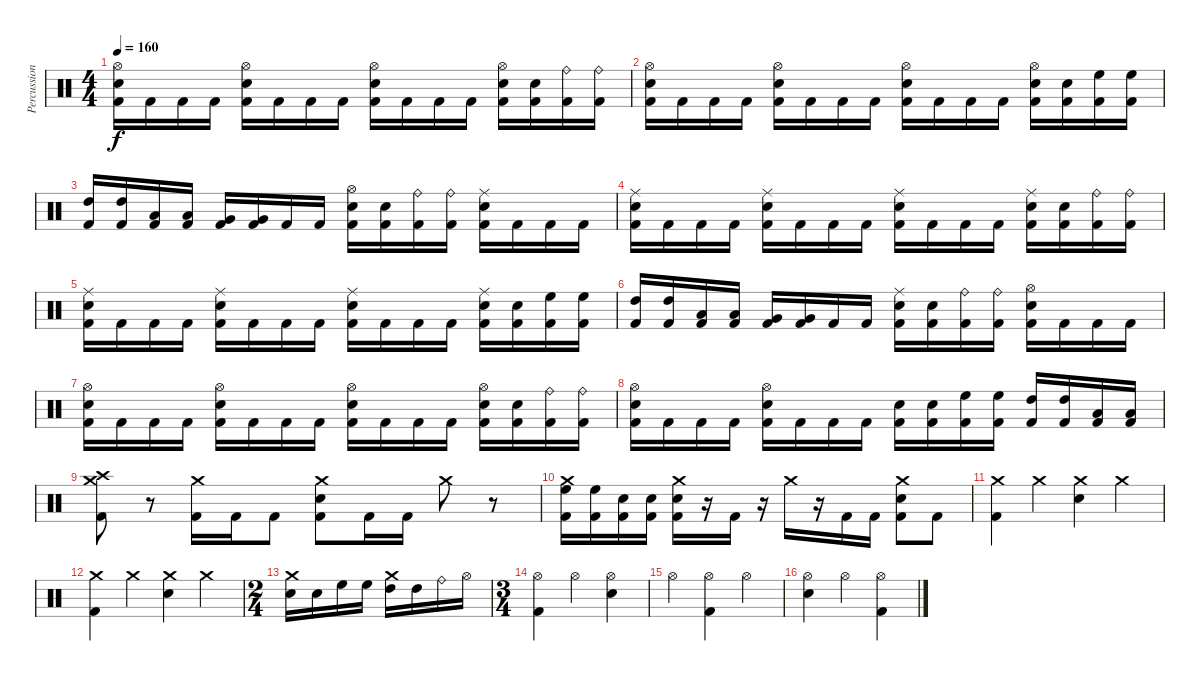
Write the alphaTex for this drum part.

\track ("Percussion" "Percussion") {instrument percussion}
\staff {score}
\articulation defaults
\ts (4 4)
\tempo 160
\clef neutral
\ks c
("Hi-Hat (open)" "Snare (hit) 2" "Kick (hit) 2").16{dy f} "Kick (hit) 2".16 "Kick (hit) 2".16 "Kick (hit) 2".16 ("Hi-Hat (open)" "Snare (hit) 2" "Kick (hit) 2").16 "Kick (hit) 2".16 "Kick (hit) 2".16 "Kick (hit) 2".16 ("Hi-Hat (open)" "Snare (hit) 2" "Kick (hit) 2").16 "Kick (hit) 2".16 "Kick (hit) 2".16 "Kick (hit) 2".16 ("Hi-Hat (open)" "Snare (hit) 2" "Kick (hit) 2").16 ("Snare (hit) 2" "Kick (hit) 2").16 ("Ride (bell)" "Kick (hit) 2").16 ("Ride (bell)" "Kick (hit) 2").16 |
("Hi-Hat (open)" "Snare (hit) 2" "Kick (hit) 2").16 "Kick (hit) 2".16 "Kick (hit) 2".16 "Kick (hit) 2".16 ("Hi-Hat (open)" "Snare (hit) 2" "Kick (hit) 2").16 "Kick (hit) 2".16 "Kick (hit) 2".16 "Kick (hit) 2".16 ("Hi-Hat (open)" "Snare (hit) 2" "Kick (hit) 2").16 "Kick (hit) 2".16 "Kick (hit) 2".16 "Kick (hit) 2".16 ("Hi-Hat (open)" "Snare (hit) 2" "Kick (hit) 2").16 ("Snare (hit) 2" "Kick (hit) 2").16 ("High Floor Tom (hit)" "Kick (hit) 2").16 ("High Floor Tom (hit)" "Kick (hit) 2").16 |
("High Tom (hit)" "Kick (hit) 2").16 ("High Tom (hit)" "Kick (hit) 2").16 ("Low Tom (hit)" "Kick (hit) 2").16 ("Low Tom (hit)" "Kick (hit) 2").16 ("Very Low Tom (hit)" "Kick (hit) 2").16 ("Very Low Tom (hit)" "Kick (hit) 2").16 "Kick (hit) 2".16 "Kick (hit) 2".16 ("Hi-Hat (open)" "Snare (hit) 2" "Kick (hit) 2").16 ("Snare (hit) 2" "Kick (hit) 2").16 ("Ride (bell)" "Kick (hit) 2").16 ("Ride (bell)" "Kick (hit) 2").16 ("Ride (middle)" "Snare (hit) 2" "Kick (hit) 2").16 "Kick (hit) 2".16 "Kick (hit) 2".16 "Kick (hit) 2".16 |
("Ride (middle)" "Snare (hit) 2" "Kick (hit) 2").16 "Kick (hit) 2".16 "Kick (hit) 2".16 "Kick (hit) 2".16 ("Ride (middle)" "Snare (hit) 2" "Kick (hit) 2").16 "Kick (hit) 2".16 "Kick (hit) 2".16 "Kick (hit) 2".16 ("Ride (middle)" "Snare (hit) 2" "Kick (hit) 2").16 "Kick (hit) 2".16 "Kick (hit) 2".16 "Kick (hit) 2".16 ("Ride (middle)" "Snare (hit) 2" "Kick (hit) 2").16 ("Snare (hit) 2" "Kick (hit) 2").16 ("Ride (bell)" "Kick (hit) 2").16 ("Ride (bell)" "Kick (hit) 2").16 |
("Ride (middle)" "Snare (hit) 2" "Kick (hit) 2").16 "Kick (hit) 2".16 "Kick (hit) 2".16 "Kick (hit) 2".16 ("Ride (middle)" "Snare (hit) 2" "Kick (hit) 2").16 "Kick (hit) 2".16 "Kick (hit) 2".16 "Kick (hit) 2".16 ("Ride (middle)" "Snare (hit) 2" "Kick (hit) 2").16 "Kick (hit) 2".16 "Kick (hit) 2".16 "Kick (hit) 2".16 ("Ride (middle)" "Snare (hit) 2" "Kick (hit) 2").16 ("Snare (hit) 2" "Kick (hit) 2").16 ("High Floor Tom (hit)" "Kick (hit) 2").16 ("High Floor Tom (hit)" "Kick (hit) 2").16 |
("High Tom (hit)" "Kick (hit) 2").16 ("High Tom (hit)" "Kick (hit) 2").16 ("Low Tom (hit)" "Kick (hit) 2").16 ("Low Tom (hit)" "Kick (hit) 2").16 ("Very Low Tom (hit)" "Kick (hit) 2").16 ("Very Low Tom (hit)" "Kick (hit) 2").16 "Kick (hit) 2".16 "Kick (hit) 2".16 ("Ride (middle)" "Snare (hit) 2" "Kick (hit) 2").16 ("Snare (hit) 2" "Kick (hit) 2").16 ("Ride (bell)" "Kick (hit) 2").16 ("Ride (bell)" "Kick (hit) 2").16 ("Hi-Hat (open)" "Snare (hit) 2" "Kick (hit) 2").16 "Kick (hit) 2".16 "Kick (hit) 2".16 "Kick (hit) 2".16 |
("Hi-Hat (open)" "Snare (hit) 2" "Kick (hit) 2").16 "Kick (hit) 2".16 "Kick (hit) 2".16 "Kick (hit) 2".16 ("Hi-Hat (open)" "Snare (hit) 2" "Kick (hit) 2").16 "Kick (hit) 2".16 "Kick (hit) 2".16 "Kick (hit) 2".16 ("Hi-Hat (open)" "Snare (hit) 2" "Kick (hit) 2").16 "Kick (hit) 2".16 "Kick (hit) 2".16 "Kick (hit) 2".16 ("Hi-Hat (open)" "Snare (hit) 2" "Kick (hit) 2").16 ("Snare (hit) 2" "Kick (hit) 2").16 ("Ride (bell)" "Kick (hit) 2").16 ("Ride (bell)" "Kick (hit) 2").16 |
("Hi-Hat (open)" "Snare (hit) 2" "Kick (hit) 2").16 "Kick (hit) 2".16 "Kick (hit) 2".16 "Kick (hit) 2".16 ("Hi-Hat (open)" "Snare (hit) 2" "Kick (hit) 2").16 "Kick (hit) 2".16 "Kick (hit) 2".16 "Kick (hit) 2".16 ("Snare (hit) 2" "Kick (hit) 2").16 ("Snare (hit) 2" "Kick (hit) 2").16 ("High Floor Tom (hit)" "Kick (hit) 2").16 ("High Floor Tom (hit)" "Kick (hit) 2").16 ("High Tom (hit)" "Kick (hit) 2").16 ("High Tom (hit)" "Kick (hit) 2").16 ("Low Tom (hit)" "Kick (hit) 2").16 ("Low Tom (hit)" "Kick (hit) 2").16 |
("Crash medium (hit)" "Crash high (hit)" "Kick (hit) 2").8 r.8 ("Crash medium (hit)" "Kick (hit) 2").16 "Kick (hit) 2".16 "Kick (hit) 2".8 ("Crash medium (hit)" "Snare (hit) 2" "Kick (hit) 2").8 "Kick (hit) 2".16 "Kick (hit) 2".16 "Crash medium (hit)".8 r.8 |
("Crash medium (hit)" "High Floor Tom (hit)" "Kick (hit) 2").16 ("High Floor Tom (hit)" "Kick (hit) 2").16 ("Snare (hit) 2" "Kick (hit) 2").16 ("Snare (hit) 2" "Kick (hit) 2").16 ("Crash medium (hit)" "Snare (hit) 2" "Kick (hit) 2").16 r.16 "Kick (hit) 2".16 r.16 "Crash medium (hit)".16 r.16 "Kick (hit) 2".16 "Kick (hit) 2".16 ("Crash medium (hit)" "Snare (hit) 2" "Kick (hit) 2").8 "Kick (hit) 2".8 |
("Crash medium (hit)" "Kick (hit) 2").4 "Crash medium (hit)".4 ("Crash medium (hit)" "Snare (hit) 2").4 "Crash medium (hit)".4 |
("Crash medium (hit)" "Kick (hit) 2").4 "Crash medium (hit)".4 ("Crash medium (hit)" "Snare (hit) 2").4 "Crash medium (hit)".4 |
\ts (2 4)
("Crash medium (hit)" "Snare (hit) 2").16 "Snare (hit) 2".16 "High Floor Tom (hit)".16 "High Floor Tom (hit)".16 ("Crash medium (hit)" "High Tom (hit)").16 "High Tom (hit)".16 "Ride (bell)".16 "Hi-Hat (open)".16 |
\ts (3 4)
("Hi-Hat (open)" "Kick (hit) 2").4 "Hi-Hat (open)".4 ("Hi-Hat (open)" "Snare (hit) 2").4 |
"Hi-Hat (open)".4 ("Hi-Hat (open)" "Kick (hit) 2").4 "Hi-Hat (open)".4 |
("Hi-Hat (open)" "Snare (hit) 2").4 "Hi-Hat (open)".4 ("Hi-Hat (open)" "Kick (hit) 2").4
